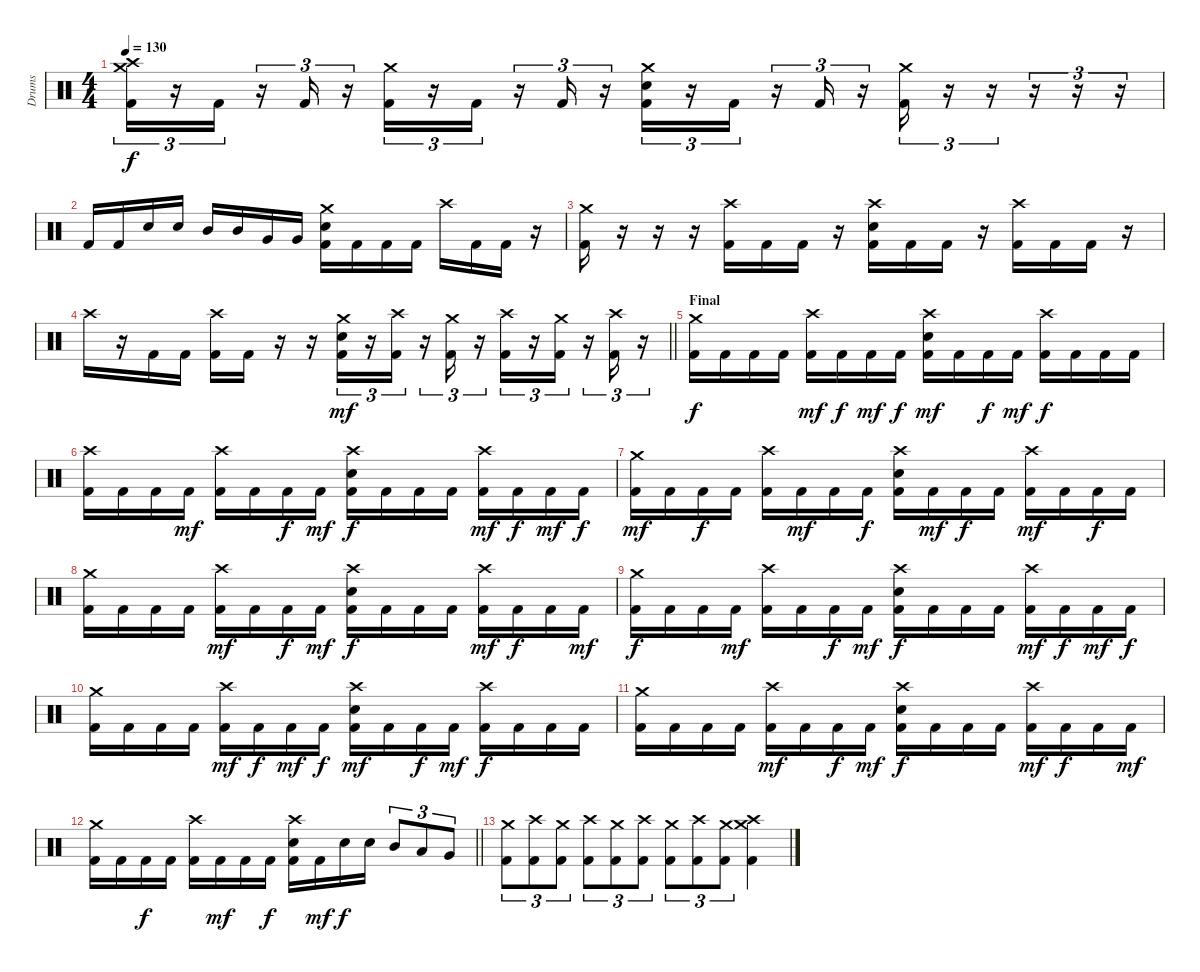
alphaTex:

\track ("Drums" "Drums") {instrument percussion}
\staff {score}
\articulation defaults
\ts (4 4)
\tempo 130
\clef neutral
\ks c
("Crash high (hit)" "Crash medium (hit)" "Kick (hit) 2").16{tu (3 2) dy f} r.16{tu (3 2)} "Kick (hit) 2".16{tu (3 2)} r.16{tu (3 2)} "Kick (hit) 2".16{tu (3 2)} r.16{tu (3 2)} ("Crash medium (hit)" "Kick (hit) 2").16{tu (3 2)} r.16{tu (3 2)} "Kick (hit) 2".16{tu (3 2)} r.16{tu (3 2)} "Kick (hit) 2".16{tu (3 2)} r.16{tu (3 2)} ("Crash medium (hit)" "Electric Snare (hit)" "Kick (hit) 2").16{tu (3 2)} r.16{tu (3 2)} "Kick (hit) 2".16{tu (3 2)} r.16{tu (3 2)} "Kick (hit) 2".16{tu (3 2)} r.16{tu (3 2)} ("Crash medium (hit)" "Kick (hit) 2").16{tu (3 2)} r.16{tu (3 2)} r.16{tu (3 2)} r.16{tu (3 2)} r.16{tu (3 2)} r.16{tu (3 2)} |
"Kick (hit) 2".16 "Kick (hit) 2".16 "Electric Snare (hit)".16 "Electric Snare (hit)".16 "Mid Tom (hit)".16 "Mid Tom (hit)".16 "Very Low Tom (hit)".16 "Very Low Tom (hit)".16 ("Crash medium (hit)" "Electric Snare (hit)" "Kick (hit) 2").16 "Kick (hit) 2".16 "Kick (hit) 2".16 "Kick (hit) 2".16 "Crash high (hit)".16 "Kick (hit) 2".16 "Kick (hit) 2".16 r.16 |
("Crash medium (hit)" "Kick (hit) 2").16 r.16 r.16 r.16 ("Crash high (hit)" "Kick (hit) 2").16 "Kick (hit) 2".16 "Kick (hit) 2".16 r.16 ("Crash high (hit)" "Electric Snare (hit)" "Kick (hit) 2").16 "Kick (hit) 2".16 "Kick (hit) 2".16 r.16 ("Crash high (hit)" "Kick (hit) 2").16 "Kick (hit) 2".16 "Kick (hit) 2".16 r.16 |
\barLineRight lightlight "Crash high (hit)".16
r.16 "Kick (hit) 2".16 "Kick (hit) 2".16 ("Crash high (hit)" "Kick (hit) 2").16 "Kick (hit) 2".16 r.16 r.16 ("Crash medium (hit)" "Electric Snare (hit)" "Kick (hit) 2").16{tu (3 2) dy mf} r.16{tu (3 2)} ("Crash high (hit)" "Kick (hit) 2").16{tu (3 2)} r.16{tu (3 2)} ("Crash medium (hit)" "Kick (hit) 2").16{tu (3 2)} r.16{tu (3 2)} ("Crash high (hit)" "Kick (hit) 2").16{tu (3 2)} r.16{tu (3 2)} ("Crash medium (hit)" "Kick (hit) 2").16{tu (3 2)} r.16{tu (3 2)} ("Crash high (hit)" "Kick (hit) 2").16{tu (3 2)} r.16{tu (3 2)} |
\section ("" "Final")
("Crash medium (hit)" "Kick (hit) 2").16{dy f} "Kick (hit) 2".16 "Kick (hit) 2".16 "Kick (hit) 2".16 ("Crash high (hit)" "Kick (hit) 2").16{dy mf} "Kick (hit) 2".16{dy f} "Kick (hit) 2".16{dy mf} "Kick (hit) 2".16{dy f} ("Crash high (hit)" "Electric Snare (hit)" "Kick (hit) 2").16{dy mf} "Kick (hit) 2".16 "Kick (hit) 2".16{dy f} "Kick (hit) 2".16{dy mf} ("Crash high (hit)" "Kick (hit) 2").16{dy f} "Kick (hit) 2".16 "Kick (hit) 2".16 "Kick (hit) 2".16 |
("Crash high (hit)" "Kick (hit) 2").16 "Kick (hit) 2".16 "Kick (hit) 2".16 "Kick (hit) 2".16{dy mf} ("Crash high (hit)" "Kick (hit) 2").16 "Kick (hit) 2".16 "Kick (hit) 2".16{dy f} "Kick (hit) 2".16{dy mf} ("Crash high (hit)" "Electric Snare (hit)" "Kick (hit) 2").16{dy f} "Kick (hit) 2".16 "Kick (hit) 2".16 "Kick (hit) 2".16 ("Crash high (hit)" "Kick (hit) 2").16{dy mf} "Kick (hit) 2".16{dy f} "Kick (hit) 2".16{dy mf} "Kick (hit) 2".16{dy f} |
("Crash medium (hit)" "Kick (hit) 2").16{dy mf} "Kick (hit) 2".16 "Kick (hit) 2".16{dy f} "Kick (hit) 2".16 ("Crash high (hit)" "Kick (hit) 2").16 "Kick (hit) 2".16{dy mf} "Kick (hit) 2".16 "Kick (hit) 2".16{dy f} ("Crash high (hit)" "Electric Snare (hit)" "Kick (hit) 2").16 "Kick (hit) 2".16{dy mf} "Kick (hit) 2".16{dy f} "Kick (hit) 2".16 ("Crash high (hit)" "Kick (hit) 2").16{dy mf} "Kick (hit) 2".16 "Kick (hit) 2".16{dy f} "Kick (hit) 2".16 |
("Crash medium (hit)" "Kick (hit) 2").16 "Kick (hit) 2".16 "Kick (hit) 2".16 "Kick (hit) 2".16 ("Crash high (hit)" "Kick (hit) 2").16{dy mf} "Kick (hit) 2".16 "Kick (hit) 2".16{dy f} "Kick (hit) 2".16{dy mf} ("Crash high (hit)" "Electric Snare (hit)" "Kick (hit) 2").16{dy f} "Kick (hit) 2".16 "Kick (hit) 2".16 "Kick (hit) 2".16 ("Crash high (hit)" "Kick (hit) 2").16{dy mf} "Kick (hit) 2".16{dy f} "Kick (hit) 2".16 "Kick (hit) 2".16{dy mf} |
("Crash medium (hit)" "Kick (hit) 2").16{dy f} "Kick (hit) 2".16 "Kick (hit) 2".16 "Kick (hit) 2".16{dy mf} ("Crash high (hit)" "Kick (hit) 2").16 "Kick (hit) 2".16 "Kick (hit) 2".16{dy f} "Kick (hit) 2".16{dy mf} ("Crash high (hit)" "Electric Snare (hit)" "Kick (hit) 2").16{dy f} "Kick (hit) 2".16 "Kick (hit) 2".16 "Kick (hit) 2".16 ("Crash high (hit)" "Kick (hit) 2").16{dy mf} "Kick (hit) 2".16{dy f} "Kick (hit) 2".16{dy mf} "Kick (hit) 2".16{dy f} |
("Crash medium (hit)" "Kick (hit) 2").16 "Kick (hit) 2".16 "Kick (hit) 2".16 "Kick (hit) 2".16 ("Crash high (hit)" "Kick (hit) 2").16{dy mf} "Kick (hit) 2".16{dy f} "Kick (hit) 2".16{dy mf} "Kick (hit) 2".16{dy f} ("Crash high (hit)" "Electric Snare (hit)" "Kick (hit) 2").16{dy mf} "Kick (hit) 2".16 "Kick (hit) 2".16{dy f} "Kick (hit) 2".16{dy mf} ("Crash high (hit)" "Kick (hit) 2").16{dy f} "Kick (hit) 2".16 "Kick (hit) 2".16 "Kick (hit) 2".16 |
("Crash medium (hit)" "Kick (hit) 2").16 "Kick (hit) 2".16 "Kick (hit) 2".16 "Kick (hit) 2".16 ("Crash high (hit)" "Kick (hit) 2").16{dy mf} "Kick (hit) 2".16 "Kick (hit) 2".16{dy f} "Kick (hit) 2".16{dy mf} ("Crash high (hit)" "Electric Snare (hit)" "Kick (hit) 2").16{dy f} "Kick (hit) 2".16 "Kick (hit) 2".16 "Kick (hit) 2".16 ("Crash high (hit)" "Kick (hit) 2").16{dy mf} "Kick (hit) 2".16{dy f} "Kick (hit) 2".16 "Kick (hit) 2".16{dy mf} |
\barLineRight lightlight
("Crash medium (hit)" "Kick (hit) 2").16 "Kick (hit) 2".16 "Kick (hit) 2".16{dy f} "Kick (hit) 2".16 ("Crash high (hit)" "Kick (hit) 2").16 "Kick (hit) 2".16{dy mf} "Kick (hit) 2".16 "Kick (hit) 2".16{dy f} ("Crash high (hit)" "Electric Snare (hit)" "Kick (hit) 2").16 "Kick (hit) 2".16{dy mf} "Electric Snare (hit)".16{dy f} "Electric Snare (hit)".16 "Mid Tom (hit)".8{tu (3 2)} "Low Tom (hit)".8{tu (3 2)} "Very Low Tom (hit)".8{tu (3 2)} |
("Crash medium (hit)" "Kick (hit) 2").8{tu (3 2)} ("Crash high (hit)" "Kick (hit) 2").8{tu (3 2)} ("Crash medium (hit)" "Kick (hit) 2").8{tu (3 2)} ("Crash high (hit)" "Kick (hit) 2").8{tu (3 2)} ("Crash medium (hit)" "Kick (hit) 2").8{tu (3 2)} ("Crash high (hit)" "Kick (hit) 2").8{tu (3 2)} ("Crash medium (hit)" "Kick (hit) 2").8{tu (3 2)} ("Crash high (hit)" "Kick (hit) 2").8{tu (3 2)} ("Crash medium (hit)" "Kick (hit) 2").8{tu (3 2)} ("Crash high (hit)" "Crash medium (hit)" "Kick (hit) 2").4
